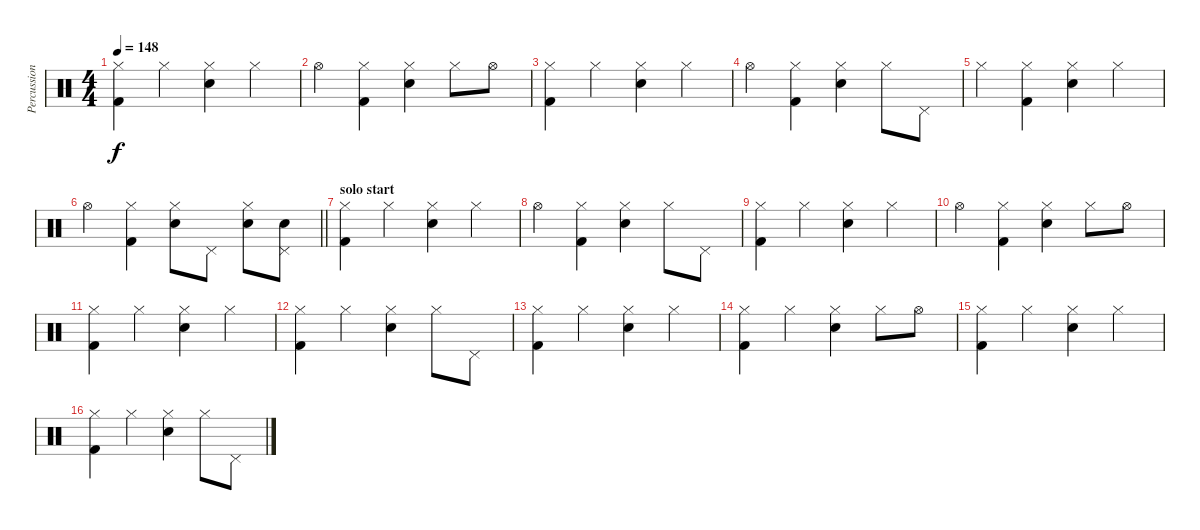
\track ("Percussions" "Percussion") {instrument percussion}
\staff {score}
\articulation defaults
\ts (4 4)
\tempo 148
\clef neutral
\ks c
("Hi-Hat (closed)" "Kick (hit) 2").4{dy f} "Hi-Hat (closed)".4 ("Hi-Hat (closed)" "Snare (hit) 2").4 "Hi-Hat (closed)".4 |
"Hi-Hat (open)".4 ("Hi-Hat (closed)" "Kick (hit) 2").4 ("Hi-Hat (closed)" "Snare (hit) 2").4 "Hi-Hat (closed)".8 "Hi-Hat (open)".8 |
("Hi-Hat (closed)" "Kick (hit) 2").4 "Hi-Hat (closed)".4 ("Hi-Hat (closed)" "Snare (hit) 2").4 "Hi-Hat (closed)".4 |
"Hi-Hat (open)".4 ("Hi-Hat (closed)" "Kick (hit) 2").4 ("Hi-Hat (closed)" "Snare (hit) 2").4 "Hi-Hat (closed)".8 "Pedal Hi-Hat (hit)".8 |
"Hi-Hat (closed)".4 ("Hi-Hat (closed)" "Kick (hit) 2").4 ("Hi-Hat (closed)" "Snare (hit) 2").4 "Hi-Hat (closed)".4 |
\barLineRight lightlight "Hi-Hat (open)".4
("Hi-Hat (closed)" "Kick (hit) 2").4 ("Hi-Hat (closed)" "Snare (hit) 2").8 "Pedal Hi-Hat (hit)".8 ("Hi-Hat (closed)" "Snare (hit) 2").8 ("Pedal Hi-Hat (hit)" "Snare (hit) 2").8 |
\section ("" "solo start")
("Hi-Hat (closed)" "Kick (hit) 2").4 "Hi-Hat (closed)".4 ("Hi-Hat (closed)" "Snare (hit) 2").4 "Hi-Hat (closed)".4 |
"Hi-Hat (open)".4 ("Hi-Hat (closed)" "Kick (hit) 2").4 ("Hi-Hat (closed)" "Snare (hit) 2").4 "Hi-Hat (closed)".8 "Pedal Hi-Hat (hit)".8 |
("Hi-Hat (closed)" "Kick (hit) 2").4 "Hi-Hat (closed)".4 ("Hi-Hat (closed)" "Snare (hit) 2").4 "Hi-Hat (closed)".4 |
"Hi-Hat (open)".4 ("Hi-Hat (closed)" "Kick (hit) 2").4 ("Hi-Hat (closed)" "Snare (hit) 2").4 "Hi-Hat (closed)".8 "Hi-Hat (open)".8 |
("Hi-Hat (closed)" "Kick (hit) 2").4 "Hi-Hat (closed)".4 ("Hi-Hat (closed)" "Snare (hit) 2").4 "Hi-Hat (closed)".4 |
("Hi-Hat (closed)" "Kick (hit) 2").4 "Hi-Hat (closed)".4 ("Hi-Hat (closed)" "Snare (hit) 2").4 "Hi-Hat (closed)".8 "Pedal Hi-Hat (hit)".8 |
("Hi-Hat (closed)" "Kick (hit) 2").4 "Hi-Hat (closed)".4 ("Hi-Hat (closed)" "Snare (hit) 2").4 "Hi-Hat (closed)".4 |
("Hi-Hat (closed)" "Kick (hit) 2").4 "Hi-Hat (closed)".4 ("Hi-Hat (closed)" "Snare (hit) 2").4 "Hi-Hat (closed)".8 "Hi-Hat (open)".8 |
("Hi-Hat (closed)" "Kick (hit) 2").4 "Hi-Hat (closed)".4 ("Hi-Hat (closed)" "Snare (hit) 2").4 "Hi-Hat (closed)".4 |
("Hi-Hat (closed)" "Kick (hit) 2").4 "Hi-Hat (closed)".4 ("Hi-Hat (closed)" "Snare (hit) 2").4 "Hi-Hat (closed)".8 "Pedal Hi-Hat (hit)".8
